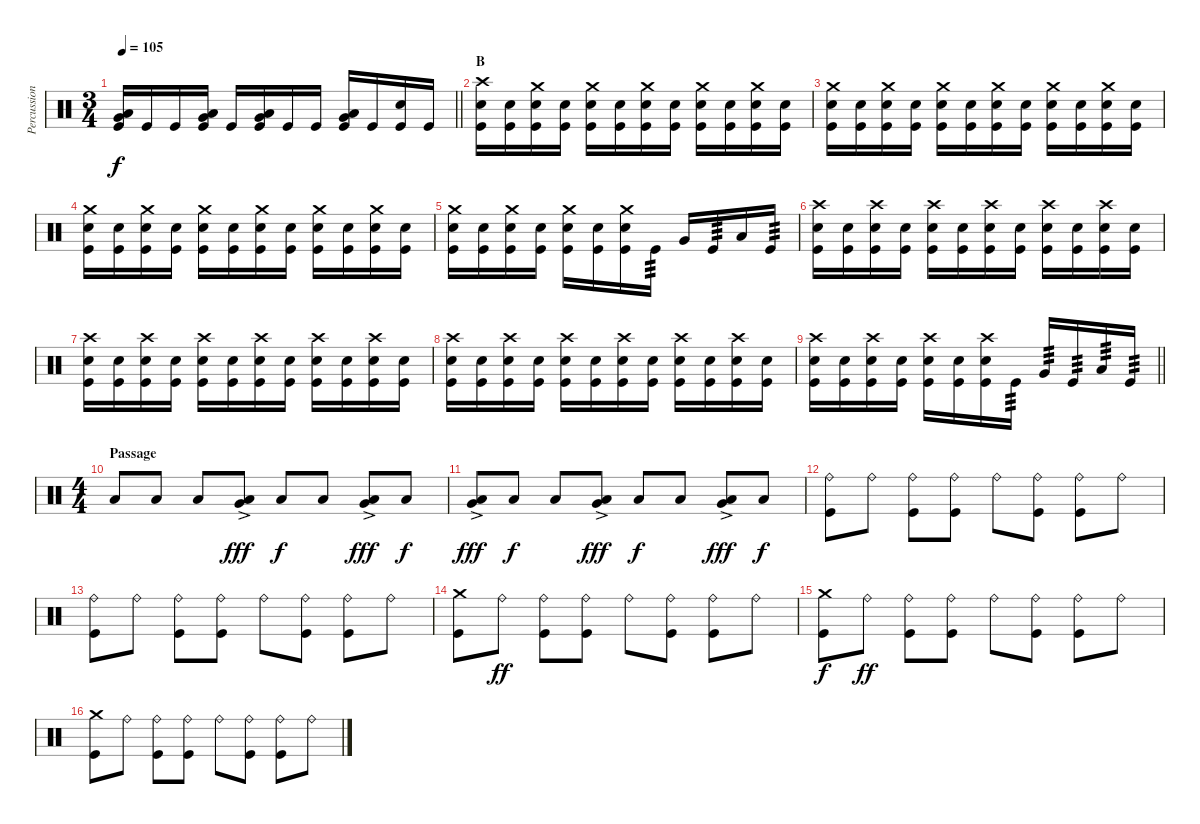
\track ("Percussion" "Percussion") {instrument percussion}
\staff {score}
\articulation defaults
\ts (3 4)
\tempo 105
\clef neutral
\barLineRight lightlight
\ks c
("Kick (hit)" "Low Floor Tom (hit)" "Very Low Tom (hit)").16{dy f} "Kick (hit)".16 "Kick (hit)".16 ("Kick (hit)" "Low Floor Tom (hit)" "Very Low Tom (hit)").16 "Kick (hit)".16 ("Kick (hit)" "Low Floor Tom (hit)" "Very Low Tom (hit)").16 "Kick (hit)".16 "Kick (hit)".16 ("Kick (hit)" "Low Floor Tom (hit)" "Very Low Tom (hit)").16 "Kick (hit)".16 ("Kick (hit)" "Snare (hit) 2").16 "Kick (hit)".16 |
\section ("" "B")
("Kick (hit)" "Crash high (hit)" "Snare (hit) 2").16 ("Kick (hit)" "Snare (hit) 2").16 ("Kick (hit)" "Crash medium (hit)" "Snare (hit) 2").16 ("Kick (hit)" "Snare (hit) 2").16 ("Kick (hit)" "Crash medium (hit)" "Snare (hit) 2").16 ("Kick (hit)" "Snare (hit) 2").16 ("Kick (hit)" "Crash medium (hit)" "Snare (hit) 2").16 ("Kick (hit)" "Snare (hit) 2").16 ("Kick (hit)" "Crash medium (hit)" "Snare (hit) 2").16 ("Kick (hit)" "Snare (hit) 2").16 ("Kick (hit)" "Crash medium (hit)" "Snare (hit) 2").16 ("Kick (hit)" "Snare (hit) 2").16 |
("Kick (hit)" "Crash medium (hit)" "Snare (hit) 2").16 ("Kick (hit)" "Snare (hit) 2").16 ("Kick (hit)" "Crash medium (hit)" "Snare (hit) 2").16 ("Kick (hit)" "Snare (hit) 2").16 ("Kick (hit)" "Crash medium (hit)" "Snare (hit) 2").16 ("Kick (hit)" "Snare (hit) 2").16 ("Kick (hit)" "Crash medium (hit)" "Snare (hit) 2").16 ("Kick (hit)" "Snare (hit) 2").16 ("Kick (hit)" "Crash medium (hit)" "Snare (hit) 2").16 ("Kick (hit)" "Snare (hit) 2").16 ("Kick (hit)" "Crash medium (hit)" "Snare (hit) 2").16 ("Kick (hit)" "Snare (hit) 2").16 |
("Kick (hit)" "Crash medium (hit)" "Snare (hit) 2").16 ("Kick (hit)" "Snare (hit) 2").16 ("Kick (hit)" "Crash medium (hit)" "Snare (hit) 2").16 ("Kick (hit)" "Snare (hit) 2").16 ("Kick (hit)" "Crash medium (hit)" "Snare (hit) 2").16 ("Kick (hit)" "Snare (hit) 2").16 ("Kick (hit)" "Crash medium (hit)" "Snare (hit) 2").16 ("Kick (hit)" "Snare (hit) 2").16 ("Kick (hit)" "Crash medium (hit)" "Snare (hit) 2").16 ("Kick (hit)" "Snare (hit) 2").16 ("Kick (hit)" "Crash medium (hit)" "Snare (hit) 2").16 ("Kick (hit)" "Snare (hit) 2").16 |
("Kick (hit)" "Crash medium (hit)" "Snare (hit) 2").16 ("Kick (hit)" "Snare (hit) 2").16 ("Kick (hit)" "Crash medium (hit)" "Snare (hit) 2").16 ("Kick (hit)" "Snare (hit) 2").16 ("Kick (hit)" "Crash medium (hit)" "Snare (hit) 2").16 ("Kick (hit)" "Snare (hit) 2").16 ("Kick (hit)" "Crash medium (hit)" "Snare (hit) 2").16 "Kick (hit)".16{tp 3} "Very Low Tom (hit)".16 "Kick (hit)".16{tp 3} "Low Floor Tom (hit)".16 "Kick (hit)".16{tp 3} |
("Kick (hit)" "Crash high (hit)" "Snare (hit) 2").16 ("Kick (hit)" "Snare (hit) 2").16 ("Kick (hit)" "Crash high (hit)" "Snare (hit) 2").16 ("Kick (hit)" "Snare (hit) 2").16 ("Kick (hit)" "Crash high (hit)" "Snare (hit) 2").16 ("Kick (hit)" "Snare (hit) 2").16 ("Kick (hit)" "Crash high (hit)" "Snare (hit) 2").16 ("Kick (hit)" "Snare (hit) 2").16 ("Kick (hit)" "Crash high (hit)" "Snare (hit) 2").16 ("Kick (hit)" "Snare (hit) 2").16 ("Kick (hit)" "Crash high (hit)" "Snare (hit) 2").16 ("Kick (hit)" "Snare (hit) 2").16 |
("Kick (hit)" "Crash high (hit)" "Snare (hit) 2").16 ("Kick (hit)" "Snare (hit) 2").16 ("Kick (hit)" "Crash high (hit)" "Snare (hit) 2").16 ("Kick (hit)" "Snare (hit) 2").16 ("Kick (hit)" "Crash high (hit)" "Snare (hit) 2").16 ("Kick (hit)" "Snare (hit) 2").16 ("Kick (hit)" "Crash high (hit)" "Snare (hit) 2").16 ("Kick (hit)" "Snare (hit) 2").16 ("Kick (hit)" "Crash high (hit)" "Snare (hit) 2").16 ("Kick (hit)" "Snare (hit) 2").16 ("Kick (hit)" "Crash high (hit)" "Snare (hit) 2").16 ("Kick (hit)" "Snare (hit) 2").16 |
("Kick (hit)" "Crash high (hit)" "Snare (hit) 2").16 ("Kick (hit)" "Snare (hit) 2").16 ("Kick (hit)" "Crash high (hit)" "Snare (hit) 2").16 ("Kick (hit)" "Snare (hit) 2").16 ("Kick (hit)" "Crash high (hit)" "Snare (hit) 2").16 ("Kick (hit)" "Snare (hit) 2").16 ("Kick (hit)" "Crash high (hit)" "Snare (hit) 2").16 ("Kick (hit)" "Snare (hit) 2").16 ("Kick (hit)" "Crash high (hit)" "Snare (hit) 2").16 ("Kick (hit)" "Snare (hit) 2").16 ("Kick (hit)" "Crash high (hit)" "Snare (hit) 2").16 ("Kick (hit)" "Snare (hit) 2").16 |
\barLineRight lightlight
("Kick (hit)" "Crash high (hit)" "Snare (hit) 2").16 ("Kick (hit)" "Snare (hit) 2").16 ("Kick (hit)" "Crash high (hit)" "Snare (hit) 2").16 ("Kick (hit)" "Snare (hit) 2").16 ("Kick (hit)" "Crash high (hit)" "Snare (hit) 2").16 ("Kick (hit)" "Snare (hit) 2").16 ("Kick (hit)" "Crash high (hit)" "Snare (hit) 2").16 "Kick (hit)".16{tp 3} "Very Low Tom (hit)".16{tp 3} "Kick (hit)".16{tp 3} "Low Floor Tom (hit)".16{tp 3} "Kick (hit)".16{tp 3} |
\ts (4 4)
\section ("" "Passage")
"Low Floor Tom (hit)".8 "Low Floor Tom (hit)".8 "Low Floor Tom (hit)".8 ("Low Floor Tom (hit)"{ac} "Very Low Tom (hit)"{ac}).8{dy fff} "Low Floor Tom (hit)".8{dy f} "Low Floor Tom (hit)".8 ("Low Floor Tom (hit)"{ac} "Very Low Tom (hit)"{ac}).8{dy fff} "Low Floor Tom (hit)".8{dy f} |
("Low Floor Tom (hit)"{ac} "Very Low Tom (hit)"{ac}).8{dy fff} "Low Floor Tom (hit)".8{dy f} "Low Floor Tom (hit)".8 ("Low Floor Tom (hit)"{ac} "Very Low Tom (hit)"{ac}).8{dy fff} "Low Floor Tom (hit)".8{dy f} "Low Floor Tom (hit)".8 ("Low Floor Tom (hit)"{ac} "Very Low Tom (hit)"{ac}).8{dy fff} "Low Floor Tom (hit)".8{dy f} |
("Kick (hit)" "Ride (bell)").8 "Ride (bell)".8 ("Kick (hit)" "Ride (bell)").8 ("Kick (hit)" "Ride (bell)").8 "Ride (bell)".8 ("Kick (hit)" "Ride (bell)").8 ("Kick (hit)" "Ride (bell)").8 "Ride (bell)".8 |
("Kick (hit)" "Ride (bell)").8 "Ride (bell)".8 ("Kick (hit)" "Ride (bell)").8 ("Kick (hit)" "Ride (bell)").8 "Ride (bell)".8 ("Kick (hit)" "Ride (bell)").8 ("Kick (hit)" "Ride (bell)").8 "Ride (bell)".8 |
("Kick (hit)" "Crash medium (hit)").8 "Ride (bell)".8{dy ff} ("Kick (hit)" "Ride (bell)").8 ("Kick (hit)" "Ride (bell)").8 "Ride (bell)".8 ("Kick (hit)" "Ride (bell)").8 ("Kick (hit)" "Ride (bell)").8 "Ride (bell)".8 |
("Kick (hit)" "Crash medium (hit)").8{dy f} "Ride (bell)".8{dy ff} ("Kick (hit)" "Ride (bell)").8 ("Kick (hit)" "Ride (bell)").8 "Ride (bell)".8 ("Kick (hit)" "Ride (bell)").8 ("Kick (hit)" "Ride (bell)").8 "Ride (bell)".8 |
("Kick (hit)" "Crash medium (hit)").8 "Ride (bell)".8 ("Kick (hit)" "Ride (bell)").8 ("Kick (hit)" "Ride (bell)").8 "Ride (bell)".8 ("Kick (hit)" "Ride (bell)").8 ("Kick (hit)" "Ride (bell)").8 "Ride (bell)".8
